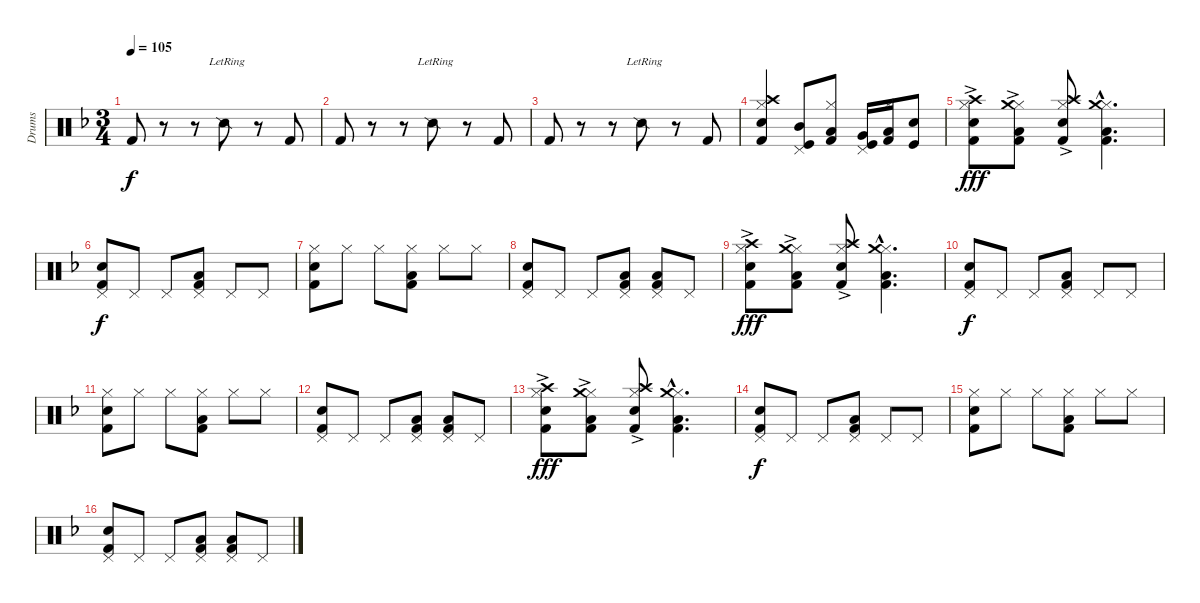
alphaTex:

\track ("Drums" "Drums") {instrument percussion}
\staff {score}
\articulation defaults
\ts (3 4)
\tempo 105
\clef neutral
\ks f "Kick (hit) 2".8{dy f}
r.8 r.8 "Snare (side stick) 2"{lr}.8 r.8 "Kick (hit) 2".8 |
"Kick (hit) 2".8 r.8 r.8 "Snare (side stick) 2"{lr}.8 r.8 "Kick (hit) 2".8 |
"Kick (hit) 2".8 r.8 r.8 "Snare (side stick) 2"{lr}.8 r.8 "Kick (hit) 2".8 |
("Hi-Hat (closed)" "Crash high (hit)" "Snare (hit) 2" "Kick (hit) 2").4 ("Pedal Hi-Hat (hit)" "Mid Tom (hit)" "Kick (hit)").8 ("Hi-Hat (closed)" "Low Tom (hit)" "Kick (hit) 2").8 ("Pedal Hi-Hat (hit)" "Very Low Tom (hit)" "Kick (hit)").16 ("Hi-Hat (closed)" "Low Floor Tom (hit)" "Kick (hit) 2").16 ("Electric Snare (hit)" "Kick (hit)").8 |
("Hi-Hat (closed)" "Crash high (hit)" "Snare (hit) 2" "Kick (hit) 2"{ac}).8{dy fff} ("Hi-Hat (closed)" "Crash medium (hit)" "Low Floor Tom (hit)" "Kick (hit) 2"{ac}).8 ("Hi-Hat (closed)" "Crash high (hit)" "Snare (hit) 2" "Kick (hit) 2"{ac}).8 ("Hi-Hat (closed)"{hac} "Crash medium (hit)"{hac} "Low Floor Tom (hit)"{hac} "Kick (hit) 2"{hac}).4{d} |
("Pedal Hi-Hat (hit)" "Snare (hit) 2" "Kick (hit) 2").8{dy f} "Pedal Hi-Hat (hit)".8 "Pedal Hi-Hat (hit)".8 ("Pedal Hi-Hat (hit)" "Low Floor Tom (hit)" "Kick (hit) 2").8 "Pedal Hi-Hat (hit)".8 "Pedal Hi-Hat (hit)".8 |
("Hi-Hat (closed)" "Snare (hit) 2" "Kick (hit) 2").8 "Hi-Hat (closed)".8 "Hi-Hat (closed)".8 ("Hi-Hat (closed)" "Low Floor Tom (hit)" "Kick (hit) 2").8 "Hi-Hat (closed)".8 "Hi-Hat (closed)".8 |
("Pedal Hi-Hat (hit)" "Snare (hit) 2" "Kick (hit) 2").8 "Pedal Hi-Hat (hit)".8 "Pedal Hi-Hat (hit)".8 ("Pedal Hi-Hat (hit)" "Low Floor Tom (hit)" "Kick (hit) 2").8 ("Pedal Hi-Hat (hit)" "Low Floor Tom (hit)" "Kick (hit) 2").8 "Pedal Hi-Hat (hit)".8 |
("Hi-Hat (closed)" "Crash high (hit)" "Snare (hit) 2" "Kick (hit) 2"{ac}).8{dy fff} ("Hi-Hat (closed)" "Crash medium (hit)" "Low Floor Tom (hit)" "Kick (hit) 2"{ac}).8 ("Hi-Hat (closed)" "Crash high (hit)" "Snare (hit) 2" "Kick (hit) 2"{ac}).8 ("Hi-Hat (closed)"{hac} "Crash medium (hit)"{hac} "Low Floor Tom (hit)"{hac} "Kick (hit) 2"{hac}).4{d} |
("Pedal Hi-Hat (hit)" "Snare (hit) 2" "Kick (hit) 2").8{dy f} "Pedal Hi-Hat (hit)".8 "Pedal Hi-Hat (hit)".8 ("Pedal Hi-Hat (hit)" "Low Floor Tom (hit)" "Kick (hit) 2").8 "Pedal Hi-Hat (hit)".8 "Pedal Hi-Hat (hit)".8 |
("Hi-Hat (closed)" "Snare (hit) 2" "Kick (hit) 2").8 "Hi-Hat (closed)".8 "Hi-Hat (closed)".8 ("Hi-Hat (closed)" "Low Floor Tom (hit)" "Kick (hit) 2").8 "Hi-Hat (closed)".8 "Hi-Hat (closed)".8 |
("Pedal Hi-Hat (hit)" "Snare (hit) 2" "Kick (hit) 2").8 "Pedal Hi-Hat (hit)".8 "Pedal Hi-Hat (hit)".8 ("Pedal Hi-Hat (hit)" "Low Floor Tom (hit)" "Kick (hit) 2").8 ("Pedal Hi-Hat (hit)" "Low Floor Tom (hit)" "Kick (hit) 2").8 "Pedal Hi-Hat (hit)".8 |
("Hi-Hat (closed)" "Crash high (hit)" "Snare (hit) 2" "Kick (hit) 2"{ac}).8{dy fff} ("Hi-Hat (closed)" "Crash medium (hit)" "Low Floor Tom (hit)" "Kick (hit) 2"{ac}).8 ("Hi-Hat (closed)" "Crash high (hit)" "Snare (hit) 2" "Kick (hit) 2"{ac}).8 ("Hi-Hat (closed)"{hac} "Crash medium (hit)"{hac} "Low Floor Tom (hit)"{hac} "Kick (hit) 2"{hac}).4{d} |
("Pedal Hi-Hat (hit)" "Snare (hit) 2" "Kick (hit) 2").8{dy f} "Pedal Hi-Hat (hit)".8 "Pedal Hi-Hat (hit)".8 ("Pedal Hi-Hat (hit)" "Low Floor Tom (hit)" "Kick (hit) 2").8 "Pedal Hi-Hat (hit)".8 "Pedal Hi-Hat (hit)".8 |
("Hi-Hat (closed)" "Snare (hit) 2" "Kick (hit) 2").8 "Hi-Hat (closed)".8 "Hi-Hat (closed)".8 ("Hi-Hat (closed)" "Low Floor Tom (hit)" "Kick (hit) 2").8 "Hi-Hat (closed)".8 "Hi-Hat (closed)".8 |
("Pedal Hi-Hat (hit)" "Snare (hit) 2" "Kick (hit) 2").8 "Pedal Hi-Hat (hit)".8 "Pedal Hi-Hat (hit)".8 ("Pedal Hi-Hat (hit)" "Low Floor Tom (hit)" "Kick (hit) 2").8 ("Pedal Hi-Hat (hit)" "Low Floor Tom (hit)" "Kick (hit) 2").8 "Pedal Hi-Hat (hit)".8
